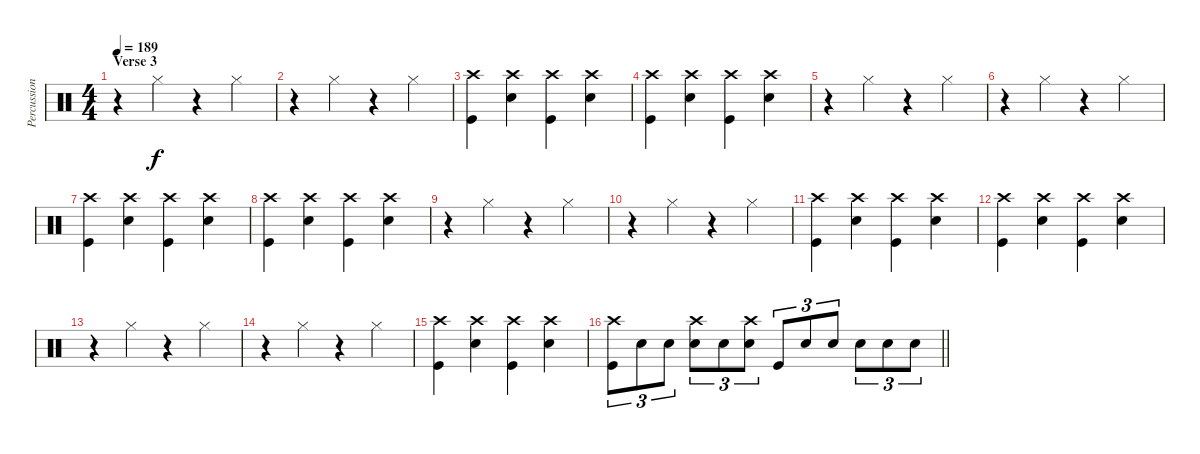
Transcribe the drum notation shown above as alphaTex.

\track ("Percussions" "Percussion") {instrument percussion}
\staff {score}
\articulation defaults
\ts (4 4)
\section ("" "Verse 3")
\tempo 189
\clef neutral
\ks c
r.4{dy f} "Hi-Hat (closed)".4 r.4 "Hi-Hat (closed)".4 |
r.4 "Hi-Hat (closed)".4 r.4 "Hi-Hat (closed)".4 |
("Crash high (hit)" "Kick (hit)").4 ("Crash high (hit)" "Snare (hit) 2").4 ("Crash high (hit)" "Kick (hit)").4 ("Crash high (hit)" "Snare (hit) 2").4 |
("Crash high (hit)" "Kick (hit)").4 ("Crash high (hit)" "Snare (hit) 2").4 ("Crash high (hit)" "Kick (hit)").4 ("Crash high (hit)" "Snare (hit) 2").4 |
r.4 "Hi-Hat (closed)".4 r.4 "Hi-Hat (closed)".4 |
r.4 "Hi-Hat (closed)".4 r.4 "Hi-Hat (closed)".4 |
("Crash high (hit)" "Kick (hit)").4 ("Crash high (hit)" "Snare (hit) 2").4 ("Crash high (hit)" "Kick (hit)").4 ("Crash high (hit)" "Snare (hit) 2").4 |
("Crash high (hit)" "Kick (hit)").4 ("Crash high (hit)" "Snare (hit) 2").4 ("Crash high (hit)" "Kick (hit)").4 ("Crash high (hit)" "Snare (hit) 2").4 |
r.4 "Hi-Hat (closed)".4 r.4 "Hi-Hat (closed)".4 |
r.4 "Hi-Hat (closed)".4 r.4 "Hi-Hat (closed)".4 |
("Crash high (hit)" "Kick (hit)").4 ("Crash high (hit)" "Snare (hit) 2").4 ("Crash high (hit)" "Kick (hit)").4 ("Crash high (hit)" "Snare (hit) 2").4 |
("Crash high (hit)" "Kick (hit)").4 ("Crash high (hit)" "Snare (hit) 2").4 ("Crash high (hit)" "Kick (hit)").4 ("Crash high (hit)" "Snare (hit) 2").4 |
r.4 "Hi-Hat (closed)".4 r.4 "Hi-Hat (closed)".4 |
r.4 "Hi-Hat (closed)".4 r.4 "Hi-Hat (closed)".4 |
("Crash high (hit)" "Kick (hit)").4 ("Crash high (hit)" "Snare (hit) 2").4 ("Crash high (hit)" "Kick (hit)").4 ("Crash high (hit)" "Snare (hit) 2").4 |
\barLineRight lightlight
("Crash high (hit)" "Kick (hit)").8{tu (3 2)} "Snare (hit) 2".8{tu (3 2)} "Snare (hit) 2".8{tu (3 2)} ("Crash high (hit)" "Snare (hit) 2").8{tu (3 2)} "Snare (hit) 2".8{tu (3 2)} ("Crash high (hit)" "Snare (hit) 2").8{tu (3 2)} "Kick (hit)".8{tu (3 2)} "Snare (hit) 2".8{tu (3 2)} "Snare (hit) 2".8{tu (3 2)} "Snare (hit) 2".8{tu (3 2)} "Snare (hit) 2".8{tu (3 2)} "Snare (hit) 2".8{tu (3 2)}
